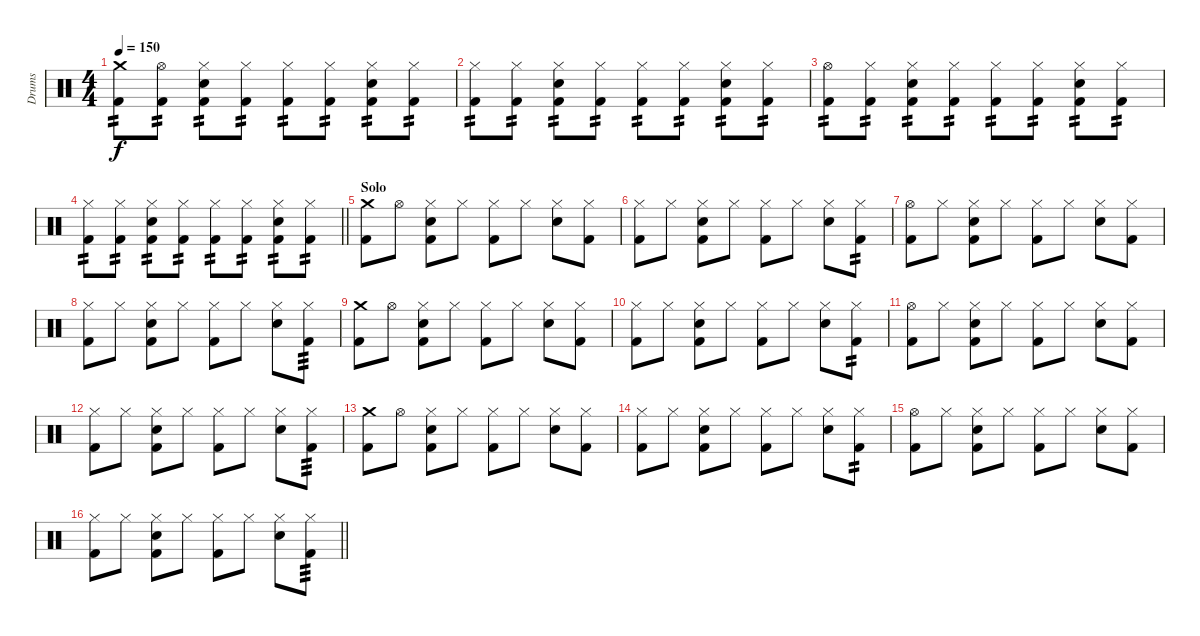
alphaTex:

\track ("Drums" "Drums") {instrument percussion}
\staff {score}
\articulation defaults
\ts (4 4)
\tempo 150
\clef neutral
\ks c
("Kick (hit) 2" "Crash medium (hit)").8{tp 2 dy f} ("Kick (hit) 2" "Hi-Hat (open)").8{tp 2} ("Kick (hit) 2" "Snare (hit) 2" "Hi-Hat (closed)").8{tp 2} ("Kick (hit) 2" "Hi-Hat (closed)").8{tp 2} ("Kick (hit) 2" "Hi-Hat (closed)").8{tp 2} ("Kick (hit) 2" "Hi-Hat (closed)").8{tp 2} ("Kick (hit) 2" "Snare (hit) 2" "Hi-Hat (closed)").8{tp 2} ("Kick (hit) 2" "Hi-Hat (closed)").8{tp 2} |
("Kick (hit) 2" "Hi-Hat (closed)").8{tp 2} ("Kick (hit) 2" "Hi-Hat (closed)").8{tp 2} ("Kick (hit) 2" "Snare (hit) 2" "Hi-Hat (closed)").8{tp 2} ("Kick (hit) 2" "Hi-Hat (closed)").8{tp 2} ("Kick (hit) 2" "Hi-Hat (closed)").8{tp 2} ("Kick (hit) 2" "Hi-Hat (closed)").8{tp 2} ("Kick (hit) 2" "Snare (hit) 2" "Hi-Hat (closed)").8{tp 2} ("Kick (hit) 2" "Hi-Hat (closed)").8{tp 2} |
("Kick (hit) 2" "Hi-Hat (open)").8{tp 2} ("Kick (hit) 2" "Hi-Hat (closed)").8{tp 2} ("Kick (hit) 2" "Snare (hit) 2" "Hi-Hat (closed)").8{tp 2} ("Kick (hit) 2" "Hi-Hat (closed)").8{tp 2} ("Kick (hit) 2" "Hi-Hat (closed)").8{tp 2} ("Kick (hit) 2" "Hi-Hat (closed)").8{tp 2} ("Kick (hit) 2" "Snare (hit) 2" "Hi-Hat (closed)").8{tp 2} ("Kick (hit) 2" "Hi-Hat (closed)").8{tp 2} |
\barLineRight lightlight
("Kick (hit) 2" "Hi-Hat (closed)").8{tp 2} ("Kick (hit) 2" "Hi-Hat (closed)").8{tp 2} ("Kick (hit) 2" "Snare (hit) 2" "Hi-Hat (closed)").8{tp 2} ("Kick (hit) 2" "Hi-Hat (closed)").8{tp 2} ("Kick (hit) 2" "Hi-Hat (closed)").8{tp 2} ("Kick (hit) 2" "Hi-Hat (closed)").8{tp 2} ("Kick (hit) 2" "Snare (hit) 2" "Hi-Hat (closed)").8{tp 2} ("Kick (hit) 2" "Hi-Hat (closed)").8{tp 2} |
\section ("" "Solo")
("Kick (hit) 2" "Crash medium (hit)").8 "Hi-Hat (open)".8 ("Kick (hit) 2" "Snare (hit) 2" "Hi-Hat (closed)").8 "Hi-Hat (closed)".8 ("Kick (hit) 2" "Hi-Hat (closed)").8 "Hi-Hat (closed)".8 ("Snare (hit) 2" "Hi-Hat (closed)").8 ("Kick (hit) 2" "Hi-Hat (closed)").8 |
("Kick (hit) 2" "Hi-Hat (closed)").8 "Hi-Hat (closed)".8 ("Kick (hit) 2" "Snare (hit) 2" "Hi-Hat (closed)").8 "Hi-Hat (closed)".8 ("Kick (hit) 2" "Hi-Hat (closed)").8 "Hi-Hat (closed)".8 ("Snare (hit) 2" "Hi-Hat (closed)").8 ("Kick (hit) 2" "Hi-Hat (closed)").8{tp 2} |
("Kick (hit) 2" "Hi-Hat (open)").8 "Hi-Hat (closed)".8 ("Kick (hit) 2" "Snare (hit) 2" "Hi-Hat (closed)").8 "Hi-Hat (closed)".8 ("Kick (hit) 2" "Hi-Hat (closed)").8 "Hi-Hat (closed)".8 ("Snare (hit) 2" "Hi-Hat (closed)").8 ("Kick (hit) 2" "Hi-Hat (closed)").8 |
("Kick (hit) 2" "Hi-Hat (closed)").8 "Hi-Hat (closed)".8 ("Kick (hit) 2" "Snare (hit) 2" "Hi-Hat (closed)").8 "Hi-Hat (closed)".8 ("Kick (hit) 2" "Hi-Hat (closed)").8 "Hi-Hat (closed)".8 ("Snare (hit) 2" "Hi-Hat (closed)").8 ("Kick (hit) 2" "Hi-Hat (closed)").8{tp 3} |
("Kick (hit) 2" "Crash medium (hit)").8 "Hi-Hat (open)".8 ("Kick (hit) 2" "Snare (hit) 2" "Hi-Hat (closed)").8 "Hi-Hat (closed)".8 ("Kick (hit) 2" "Hi-Hat (closed)").8 "Hi-Hat (closed)".8 ("Snare (hit) 2" "Hi-Hat (closed)").8 ("Kick (hit) 2" "Hi-Hat (closed)").8 |
("Kick (hit) 2" "Hi-Hat (closed)").8 "Hi-Hat (closed)".8 ("Kick (hit) 2" "Snare (hit) 2" "Hi-Hat (closed)").8 "Hi-Hat (closed)".8 ("Kick (hit) 2" "Hi-Hat (closed)").8 "Hi-Hat (closed)".8 ("Snare (hit) 2" "Hi-Hat (closed)").8 ("Kick (hit) 2" "Hi-Hat (closed)").8{tp 2} |
("Kick (hit) 2" "Hi-Hat (open)").8 "Hi-Hat (closed)".8 ("Kick (hit) 2" "Snare (hit) 2" "Hi-Hat (closed)").8 "Hi-Hat (closed)".8 ("Kick (hit) 2" "Hi-Hat (closed)").8 "Hi-Hat (closed)".8 ("Snare (hit) 2" "Hi-Hat (closed)").8 ("Kick (hit) 2" "Hi-Hat (closed)").8 |
("Kick (hit) 2" "Hi-Hat (closed)").8 "Hi-Hat (closed)".8 ("Kick (hit) 2" "Snare (hit) 2" "Hi-Hat (closed)").8 "Hi-Hat (closed)".8 ("Kick (hit) 2" "Hi-Hat (closed)").8 "Hi-Hat (closed)".8 ("Snare (hit) 2" "Hi-Hat (closed)").8 ("Kick (hit) 2" "Hi-Hat (closed)").8{tp 3} |
("Kick (hit) 2" "Crash medium (hit)").8 "Hi-Hat (open)".8 ("Kick (hit) 2" "Snare (hit) 2" "Hi-Hat (closed)").8 "Hi-Hat (closed)".8 ("Kick (hit) 2" "Hi-Hat (closed)").8 "Hi-Hat (closed)".8 ("Snare (hit) 2" "Hi-Hat (closed)").8 ("Kick (hit) 2" "Hi-Hat (closed)").8 |
("Kick (hit) 2" "Hi-Hat (closed)").8 "Hi-Hat (closed)".8 ("Kick (hit) 2" "Snare (hit) 2" "Hi-Hat (closed)").8 "Hi-Hat (closed)".8 ("Kick (hit) 2" "Hi-Hat (closed)").8 "Hi-Hat (closed)".8 ("Snare (hit) 2" "Hi-Hat (closed)").8 ("Kick (hit) 2" "Hi-Hat (closed)").8{tp 2} |
("Kick (hit) 2" "Hi-Hat (open)").8 "Hi-Hat (closed)".8 ("Kick (hit) 2" "Snare (hit) 2" "Hi-Hat (closed)").8 "Hi-Hat (closed)".8 ("Kick (hit) 2" "Hi-Hat (closed)").8 "Hi-Hat (closed)".8 ("Snare (hit) 2" "Hi-Hat (closed)").8 ("Kick (hit) 2" "Hi-Hat (closed)").8 |
\barLineRight lightlight
("Kick (hit) 2" "Hi-Hat (closed)").8 "Hi-Hat (closed)".8 ("Kick (hit) 2" "Snare (hit) 2" "Hi-Hat (closed)").8 "Hi-Hat (closed)".8 ("Kick (hit) 2" "Hi-Hat (closed)").8 "Hi-Hat (closed)".8 ("Snare (hit) 2" "Hi-Hat (closed)").8 ("Kick (hit) 2" "Hi-Hat (closed)").8{tp 3}
